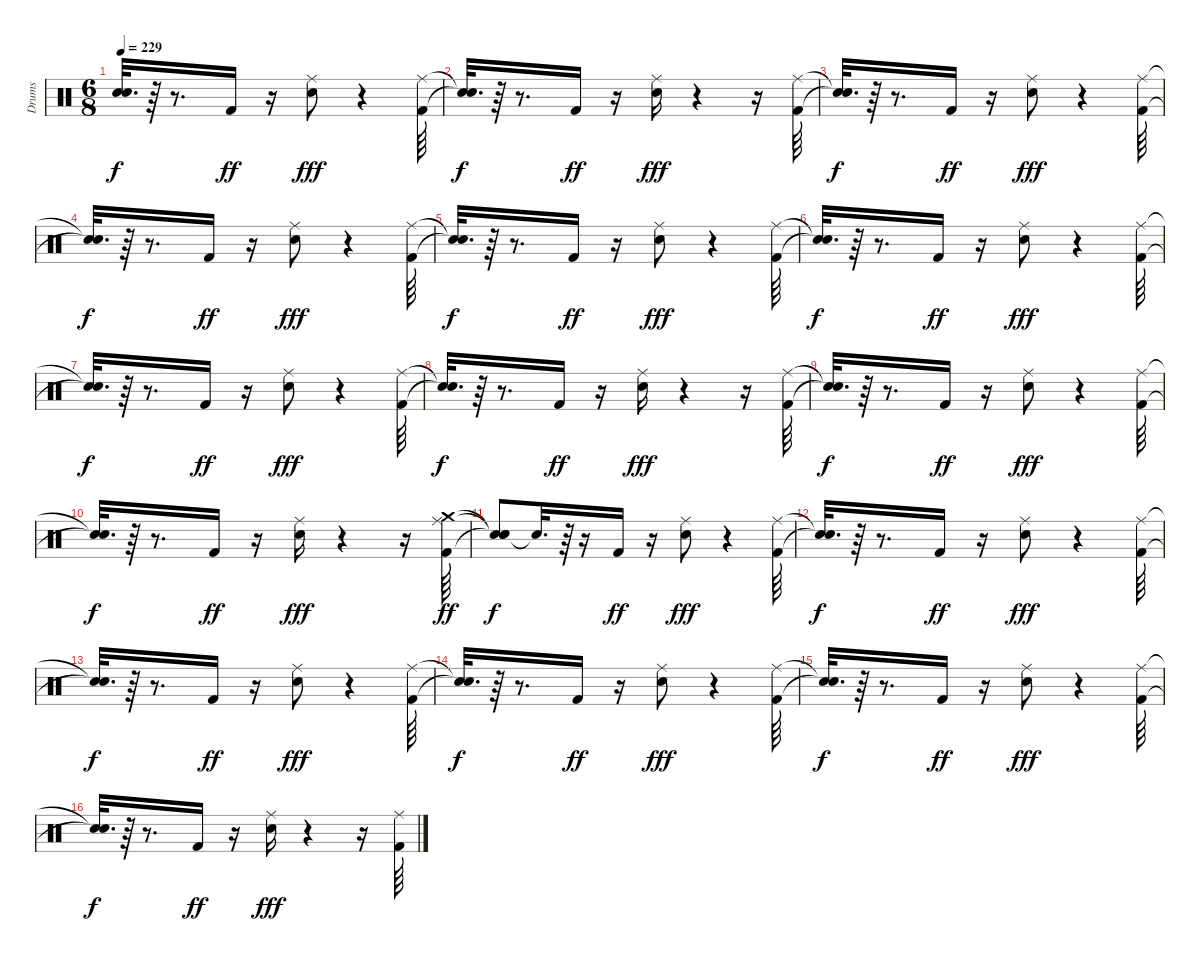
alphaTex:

\track ("Drums" "Drums") {instrument percussion}
\staff {score}
\articulation defaults
\ts (6 8)
\tempo 229
\clef neutral
\ks c
("Snare (hit)"{t} "Snare (hit)"{t}).32{d dy f} r.64 r.8{d} "Kick (hit) 2".16{dy ff} r.16 ("Snare (hit) 2" "Ride (middle)").8{dy fff} r.4 ("Kick (hit) 2" "Ride (middle)").64 |
("Snare (hit)"{t} "Snare (hit)"{t}).32{d dy f} r.64 r.8{d} "Kick (hit) 2".16{dy ff} r.16 ("Snare (hit) 2" "Ride (middle)").16{dy fff} r.4 r.16 ("Kick (hit) 2" "Ride (middle)").64 |
("Snare (hit)"{t} "Snare (hit)"{t}).32{d dy f} r.64 r.8{d} "Kick (hit) 2".16{dy ff} r.16 ("Snare (hit) 2" "Ride (middle)").8{dy fff} r.4 ("Kick (hit) 2" "Ride (middle)").64 |
("Snare (hit)"{t} "Snare (hit)"{t}).32{d dy f} r.64 r.8{d} "Kick (hit) 2".16{dy ff} r.16 ("Snare (hit) 2" "Ride (middle)").8{dy fff} r.4 ("Kick (hit) 2" "Ride (middle)").64 |
("Snare (hit)"{t} "Snare (hit)"{t}).32{d dy f} r.64 r.8{d} "Kick (hit) 2".16{dy ff} r.16 ("Snare (hit) 2" "Ride (middle)").8{dy fff} r.4 ("Kick (hit) 2" "Ride (middle)").64 |
("Snare (hit)"{t} "Snare (hit)"{t}).32{d dy f} r.64 r.8{d} "Kick (hit) 2".16{dy ff} r.16 ("Snare (hit) 2" "Ride (middle)").8{dy fff} r.4 ("Kick (hit) 2" "Ride (middle)").64 |
("Snare (hit)"{t} "Snare (hit)"{t}).32{d dy f} r.64 r.8{d} "Kick (hit) 2".16{dy ff} r.16 ("Snare (hit) 2" "Ride (middle)").8{dy fff} r.4 ("Kick (hit) 2" "Ride (middle)").64 |
("Snare (hit)"{t} "Snare (hit)"{t}).32{d dy f} r.64 r.8{d} "Kick (hit) 2".16{dy ff} r.16 ("Snare (hit) 2" "Ride (middle)").16{dy fff} r.4 r.16 ("Kick (hit) 2" "Ride (middle)").64 |
("Snare (hit)"{t} "Snare (hit)"{t}).32{d dy f} r.64 r.8{d} "Kick (hit) 2".16{dy ff} r.16 ("Snare (hit) 2" "Ride (middle)").8{dy fff} r.4 ("Kick (hit) 2" "Ride (middle)").64 |
("Snare (hit)"{t} "Snare (hit)"{t}).32{d dy f} r.64 r.8{d} "Kick (hit) 2".16{dy ff} r.16 ("Snare (hit) 2" "Ride (middle)").16{dy fff} r.4 r.16 ("Kick (hit) 2" "Ride (middle)" "Crash medium (hit)").64{dy ff} |
("Snare (hit)"{t} "Snare (hit)"{t} "Snare (hit)"{t}).8{dy f} "Snare (hit)"{t}.32{d} r.64 r.16 "Kick (hit) 2".16{dy ff} r.16 ("Snare (hit) 2" "Ride (middle)").8{dy fff} r.4 ("Kick (hit) 2" "Ride (middle)").64 |
("Snare (hit)"{t} "Snare (hit)"{t}).32{d dy f} r.64 r.8{d} "Kick (hit) 2".16{dy ff} r.16 ("Snare (hit) 2" "Ride (middle)").8{dy fff} r.4 ("Kick (hit) 2" "Ride (middle)").64 |
("Snare (hit)"{t} "Snare (hit)"{t}).32{d dy f} r.64 r.8{d} "Kick (hit) 2".16{dy ff} r.16 ("Snare (hit) 2" "Ride (middle)").8{dy fff} r.4 ("Kick (hit) 2" "Ride (middle)").64 |
("Snare (hit)"{t} "Snare (hit)"{t}).32{d dy f} r.64 r.8{d} "Kick (hit) 2".16{dy ff} r.16 ("Snare (hit) 2" "Ride (middle)").8{dy fff} r.4 ("Kick (hit) 2" "Ride (middle)").64 |
("Snare (hit)"{t} "Snare (hit)"{t}).32{d dy f} r.64 r.8{d} "Kick (hit) 2".16{dy ff} r.16 ("Snare (hit) 2" "Ride (middle)").8{dy fff} r.4 ("Kick (hit) 2" "Ride (middle)").64 |
("Snare (hit)"{t} "Snare (hit)"{t}).32{d dy f} r.64 r.8{d} "Kick (hit) 2".16{dy ff} r.16 ("Snare (hit) 2" "Ride (middle)").16{dy fff} r.4 r.16 ("Kick (hit) 2" "Ride (middle)").64
